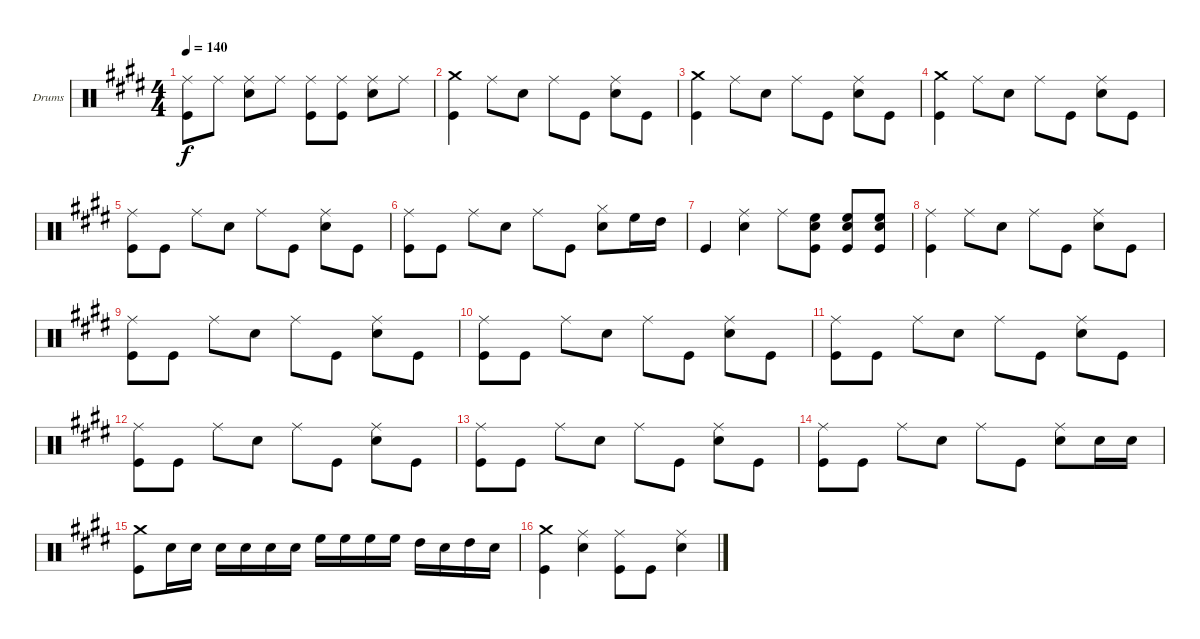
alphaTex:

\bracketExtendMode groupsimilarinstruments
\firstSystemTrackNameOrientation horizontal
\otherSystemsTrackNameOrientation horizontal
\track ("Drumkit" "Drums") {instrument percussion}
\staff {score}
\articulation defaults
\ts (4 4)
\tempo 140
\clef neutral
\ks e
("Ride (middle)" "Kick (hit)").8{dy f} "Ride (middle)".8 ("Ride (middle)" "Snare (hit) 2").8 "Ride (middle)".8 ("Ride (middle)" "Kick (hit)").8 ("Ride (middle)" "Kick (hit)").8 ("Ride (middle)" "Snare (hit) 2").8 "Ride (middle)".8 |
("Crash medium (hit)" "Kick (hit)").4 "Ride (middle)".8 "Snare (hit) 2".8 "Ride (middle)".8 "Kick (hit)".8 ("Ride (middle)" "Snare (hit) 2").8 "Kick (hit)".8 |
("Crash medium (hit)" "Kick (hit)").4 "Ride (middle)".8 "Snare (hit) 2".8 "Ride (middle)".8 "Kick (hit)".8 ("Ride (middle)" "Snare (hit) 2").8 "Kick (hit)".8 |
("Crash medium (hit)" "Kick (hit)").4 "Ride (middle)".8 "Snare (hit) 2".8 "Ride (middle)".8 "Kick (hit)".8 ("Ride (middle)" "Snare (hit) 2").8 "Kick (hit)".8 |
("Ride (middle)" "Kick (hit)").8 "Kick (hit)".8 "Ride (middle)".8 "Snare (hit) 2".8 "Ride (middle)".8 "Kick (hit)".8 ("Ride (middle)" "Snare (hit) 2").8 "Kick (hit)".8 |
("Ride (middle)" "Kick (hit)").8 "Kick (hit)".8 "Ride (middle)".8 "Snare (hit) 2".8 "Ride (middle)".8 "Kick (hit)".8 ("Snare (hit) 2" "Hi-Hat (closed)").8 "High Floor Tom (hit)".16 "High Tom (hit)".16 |
"Kick (hit)".4 ("Ride (middle)" "Snare (hit) 2").4 "Ride (middle)".8 ("High Floor Tom (hit)" "Snare (hit) 2" "Kick (hit)").8 ("High Floor Tom (hit)" "Snare (hit) 2" "Kick (hit)").8 ("High Floor Tom (hit)" "Snare (hit) 2" "Kick (hit)").8 |
("Ride (middle)" "Kick (hit)").4 "Ride (middle)".8 "Snare (hit) 2".8 "Ride (middle)".8 "Kick (hit)".8 ("Ride (middle)" "Snare (hit) 2").8 "Kick (hit)".8 |
("Ride (middle)" "Kick (hit)").8 "Kick (hit)".8 "Ride (middle)".8 "Snare (hit) 2".8 "Ride (middle)".8 "Kick (hit)".8 ("Ride (middle)" "Snare (hit) 2").8 "Kick (hit)".8 |
("Ride (middle)" "Kick (hit)").8 "Kick (hit)".8 "Ride (middle)".8 "Snare (hit) 2".8 "Ride (middle)".8 "Kick (hit)".8 ("Ride (middle)" "Snare (hit) 2").8 "Kick (hit)".8 |
("Ride (middle)" "Kick (hit)").8 "Kick (hit)".8 "Ride (middle)".8 "Snare (hit) 2".8 "Ride (middle)".8 "Kick (hit)".8 ("Ride (middle)" "Snare (hit) 2").8 "Kick (hit)".8 |
("Ride (middle)" "Kick (hit)").8 "Kick (hit)".8 "Ride (middle)".8 "Snare (hit) 2".8 "Ride (middle)".8 "Kick (hit)".8 ("Ride (middle)" "Snare (hit) 2").8 "Kick (hit)".8 |
("Ride (middle)" "Kick (hit)").8 "Kick (hit)".8 "Ride (middle)".8 "Snare (hit) 2".8 "Ride (middle)".8 "Kick (hit)".8 ("Ride (middle)" "Snare (hit) 2").8 "Kick (hit)".8 |
("Ride (middle)" "Kick (hit)").8 "Kick (hit)".8 "Ride (middle)".8 "Snare (hit) 2".8 "Ride (middle)".8 "Kick (hit)".8 ("Ride (middle)" "Snare (hit) 2").8 "Snare (hit) 2".16 "Snare (hit) 2".16 |
("Crash medium (hit)" "Kick (hit)").8 "Snare (hit) 2".16 "Snare (hit) 2".16 "Snare (hit) 2".16 "Snare (hit) 2".16 "Snare (hit) 2".16 "Snare (hit) 2".16 "High Floor Tom (hit)".16 "High Floor Tom (hit)".16 "High Floor Tom (hit)".16 "High Floor Tom (hit)".16 "High Tom (hit)".16 "Snare (hit) 2".16 "High Tom (hit)".16 "Snare (hit) 2".16 |
("Crash medium (hit)" "Kick (hit)").4 ("Ride (middle)" "Snare (hit) 2").4 ("Ride (middle)" "Kick (hit)").8 "Kick (hit)".8 ("Ride (middle)" "Snare (hit) 2").4
